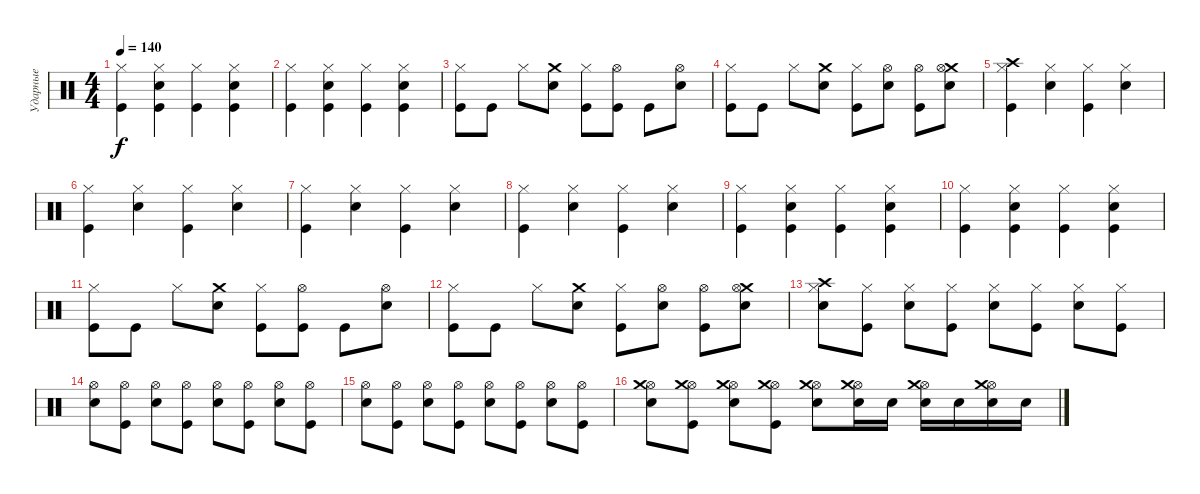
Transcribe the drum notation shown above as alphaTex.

\track ("Ударные" "Ударные") {instrument percussion}
\staff {score}
\articulation defaults
\ts (4 4)
\tempo 140
\clef neutral
\ks c
("Hi-Hat (closed)" "Kick (hit)").4{dy f} ("Kick (hit)" "Hi-Hat (closed)" "Electric Snare (hit)").4 ("Hi-Hat (closed)" "Kick (hit)").4 ("Kick (hit)" "Hi-Hat (closed)" "Electric Snare (hit)").4 |
("Hi-Hat (closed)" "Kick (hit)").4 ("Kick (hit)" "Hi-Hat (closed)" "Electric Snare (hit)").4 ("Hi-Hat (closed)" "Kick (hit)").4 ("Kick (hit)" "Hi-Hat (closed)" "Electric Snare (hit)").4 |
("Hi-Hat (closed)" "Kick (hit)").8 "Kick (hit)".8 "Hi-Hat (closed)".8 ("Crash medium (hit)" "Electric Snare (hit)").8 ("Hi-Hat (closed)" "Kick (hit)").8 ("Kick (hit)" "Hi-Hat (open)").8 "Kick (hit)".8 ("Electric Snare (hit)" "Hi-Hat (open)").8 |
("Hi-Hat (closed)" "Kick (hit)").8 "Kick (hit)".8 "Hi-Hat (closed)".8 ("Crash medium (hit)" "Electric Snare (hit)").8 ("Hi-Hat (closed)" "Kick (hit)").8 ("Electric Snare (hit)" "Hi-Hat (open)").8 ("Kick (hit)" "Hi-Hat (open)").8 ("Crash medium (hit)" "Electric Snare (hit)" "Hi-Hat (open)").8 |
("Crash high (hit)" "Hi-Hat (closed)" "Kick (hit)").4 ("Hi-Hat (closed)" "Electric Snare (hit)").4 ("Hi-Hat (closed)" "Kick (hit)").4 ("Hi-Hat (closed)" "Electric Snare (hit)").4 |
("Hi-Hat (closed)" "Kick (hit)").4 ("Hi-Hat (closed)" "Electric Snare (hit)").4 ("Hi-Hat (closed)" "Kick (hit)").4 ("Hi-Hat (closed)" "Electric Snare (hit)").4 |
("Hi-Hat (closed)" "Kick (hit)").4 ("Hi-Hat (closed)" "Electric Snare (hit)").4 ("Hi-Hat (closed)" "Kick (hit)").4 ("Hi-Hat (closed)" "Electric Snare (hit)").4 |
("Hi-Hat (closed)" "Kick (hit)").4 ("Hi-Hat (closed)" "Electric Snare (hit)").4 ("Hi-Hat (closed)" "Kick (hit)").4 ("Hi-Hat (closed)" "Electric Snare (hit)").4 |
("Hi-Hat (closed)" "Kick (hit)").4 ("Kick (hit)" "Hi-Hat (closed)" "Electric Snare (hit)").4 ("Hi-Hat (closed)" "Kick (hit)").4 ("Kick (hit)" "Hi-Hat (closed)" "Electric Snare (hit)").4 |
("Hi-Hat (closed)" "Kick (hit)").4 ("Kick (hit)" "Hi-Hat (closed)" "Electric Snare (hit)").4 ("Hi-Hat (closed)" "Kick (hit)").4 ("Kick (hit)" "Hi-Hat (closed)" "Electric Snare (hit)").4 |
("Hi-Hat (closed)" "Kick (hit)").8 "Kick (hit)".8 "Hi-Hat (closed)".8 ("Crash medium (hit)" "Electric Snare (hit)").8 ("Hi-Hat (closed)" "Kick (hit)").8 ("Kick (hit)" "Hi-Hat (open)").8 "Kick (hit)".8 ("Electric Snare (hit)" "Hi-Hat (open)").8 |
("Hi-Hat (closed)" "Kick (hit)").8 "Kick (hit)".8 "Hi-Hat (closed)".8 ("Crash medium (hit)" "Electric Snare (hit)").8 ("Hi-Hat (closed)" "Kick (hit)").8 ("Electric Snare (hit)" "Hi-Hat (open)").8 ("Kick (hit)" "Hi-Hat (open)").8 ("Crash medium (hit)" "Electric Snare (hit)" "Hi-Hat (open)").8 |
("Hi-Hat (closed)" "Crash high (hit)" "Electric Snare (hit)").8 ("Hi-Hat (closed)" "Kick (hit)").8 ("Hi-Hat (closed)" "Electric Snare (hit)").8 ("Hi-Hat (closed)" "Kick (hit)").8 ("Hi-Hat (closed)" "Electric Snare (hit)").8 ("Hi-Hat (closed)" "Kick (hit)").8 ("Hi-Hat (closed)" "Electric Snare (hit)").8 ("Hi-Hat (closed)" "Kick (hit)").8 |
("Hi-Hat (open)" "Electric Snare (hit)").8 ("Hi-Hat (open)" "Kick (hit)").8 ("Hi-Hat (open)" "Electric Snare (hit)").8 ("Hi-Hat (open)" "Kick (hit)").8 ("Hi-Hat (open)" "Electric Snare (hit)").8 ("Hi-Hat (open)" "Kick (hit)").8 ("Hi-Hat (open)" "Electric Snare (hit)").8 ("Hi-Hat (open)" "Kick (hit)").8 |
("Hi-Hat (open)" "Electric Snare (hit)").8 ("Hi-Hat (open)" "Kick (hit)").8 ("Hi-Hat (open)" "Electric Snare (hit)").8 ("Hi-Hat (open)" "Kick (hit)").8 ("Hi-Hat (open)" "Electric Snare (hit)").8 ("Hi-Hat (open)" "Kick (hit)").8 ("Hi-Hat (open)" "Electric Snare (hit)").8 ("Hi-Hat (open)" "Kick (hit)").8 |
("Hi-Hat (open)" "Crash medium (hit)" "Electric Snare (hit)").8 ("Hi-Hat (open)" "Crash medium (hit)" "Kick (hit)").8 ("Hi-Hat (open)" "Crash medium (hit)" "Electric Snare (hit)").8 ("Hi-Hat (open)" "Crash medium (hit)" "Kick (hit)").8 ("Hi-Hat (open)" "Crash medium (hit)" "Electric Snare (hit)").8 ("Hi-Hat (open)" "Crash medium (hit)" "Electric Snare (hit)").16 "Electric Snare (hit)".16 ("Hi-Hat (open)" "Crash medium (hit)" "Electric Snare (hit)").16 "Electric Snare (hit)".16 ("Hi-Hat (open)" "Crash medium (hit)" "Electric Snare (hit)").16 "Electric Snare (hit)".16
